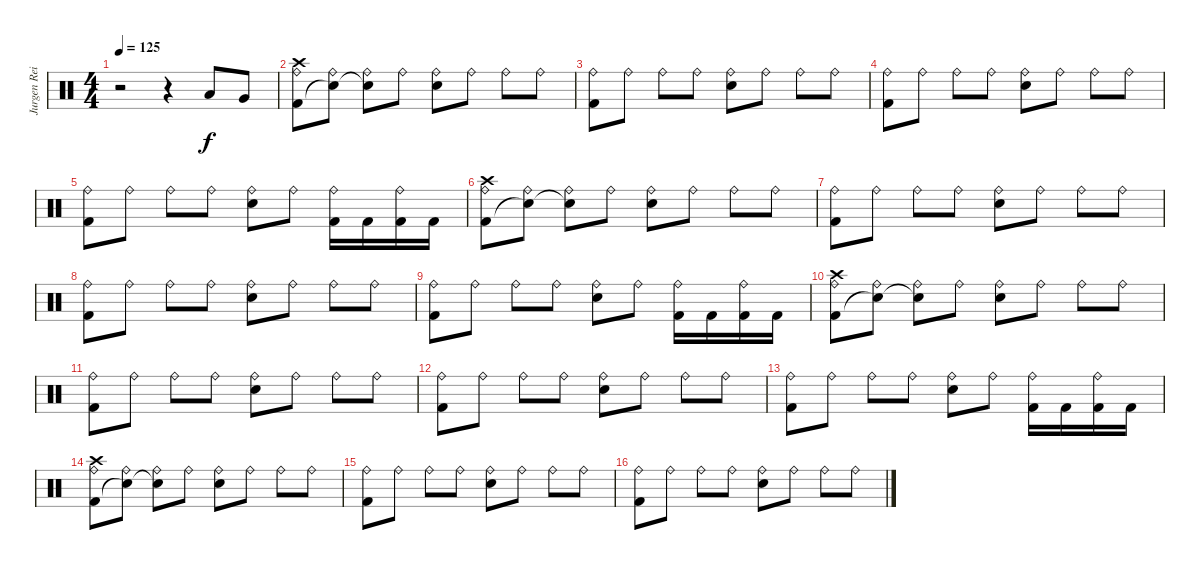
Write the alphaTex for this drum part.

\track ("Jurgen Reil" "Jurgen Rei") {instrument percussion}
\staff {score}
\articulation defaults
\ts (4 4)
\tempo 125
\clef neutral
\ks c
r.2{dy f} r.4 "Low Tom (hit)".8 "Very Low Tom (hit)".8 |
("Ride (bell)" "Kick (hit) 2" "Crash high (hit)").8 ("Ride (bell)" "Snare (hit)"{t}).8 ("Ride (bell)" "Snare (hit)"{t}).8 "Ride (bell)".8 ("Ride (bell)" "Snare (hit) 2").8 "Ride (bell)".8 "Ride (bell)".8 "Ride (bell)".8 |
("Ride (bell)" "Kick (hit) 2").8 "Ride (bell)".8 "Ride (bell)".8 "Ride (bell)".8 ("Ride (bell)" "Snare (hit) 2").8 "Ride (bell)".8 "Ride (bell)".8 "Ride (bell)".8 |
("Ride (bell)" "Kick (hit) 2").8 "Ride (bell)".8 "Ride (bell)".8 "Ride (bell)".8 ("Ride (bell)" "Snare (hit) 2").8 "Ride (bell)".8 "Ride (bell)".8 "Ride (bell)".8 |
("Ride (bell)" "Kick (hit) 2").8 "Ride (bell)".8 "Ride (bell)".8 "Ride (bell)".8 ("Ride (bell)" "Snare (hit) 2").8 "Ride (bell)".8 ("Ride (bell)" "Kick (hit) 2").16 "Kick (hit) 2".16 ("Ride (bell)" "Kick (hit) 2").16 "Kick (hit) 2".16 |
("Ride (bell)" "Kick (hit) 2" "Crash high (hit)").8 ("Ride (bell)" "Snare (hit)"{t}).8 ("Ride (bell)" "Snare (hit)"{t}).8 "Ride (bell)".8 ("Ride (bell)" "Snare (hit) 2").8 "Ride (bell)".8 "Ride (bell)".8 "Ride (bell)".8 |
("Ride (bell)" "Kick (hit) 2").8 "Ride (bell)".8 "Ride (bell)".8 "Ride (bell)".8 ("Ride (bell)" "Snare (hit) 2").8 "Ride (bell)".8 "Ride (bell)".8 "Ride (bell)".8 |
("Ride (bell)" "Kick (hit) 2").8 "Ride (bell)".8 "Ride (bell)".8 "Ride (bell)".8 ("Ride (bell)" "Snare (hit) 2").8 "Ride (bell)".8 "Ride (bell)".8 "Ride (bell)".8 |
("Ride (bell)" "Kick (hit) 2").8 "Ride (bell)".8 "Ride (bell)".8 "Ride (bell)".8 ("Ride (bell)" "Snare (hit) 2").8 "Ride (bell)".8 ("Ride (bell)" "Kick (hit) 2").16 "Kick (hit) 2".16 ("Ride (bell)" "Kick (hit) 2").16 "Kick (hit) 2".16 |
("Ride (bell)" "Kick (hit) 2" "Crash high (hit)").8 ("Ride (bell)" "Snare (hit)"{t}).8 ("Ride (bell)" "Snare (hit)"{t}).8 "Ride (bell)".8 ("Ride (bell)" "Snare (hit) 2").8 "Ride (bell)".8 "Ride (bell)".8 "Ride (bell)".8 |
("Ride (bell)" "Kick (hit) 2").8 "Ride (bell)".8 "Ride (bell)".8 "Ride (bell)".8 ("Ride (bell)" "Snare (hit) 2").8 "Ride (bell)".8 "Ride (bell)".8 "Ride (bell)".8 |
("Ride (bell)" "Kick (hit) 2").8 "Ride (bell)".8 "Ride (bell)".8 "Ride (bell)".8 ("Ride (bell)" "Snare (hit) 2").8 "Ride (bell)".8 "Ride (bell)".8 "Ride (bell)".8 |
("Ride (bell)" "Kick (hit) 2").8 "Ride (bell)".8 "Ride (bell)".8 "Ride (bell)".8 ("Ride (bell)" "Snare (hit) 2").8 "Ride (bell)".8 ("Ride (bell)" "Kick (hit) 2").16 "Kick (hit) 2".16 ("Ride (bell)" "Kick (hit) 2").16 "Kick (hit) 2".16 |
("Ride (bell)" "Kick (hit) 2" "Crash high (hit)").8 ("Ride (bell)" "Snare (hit)"{t}).8 ("Ride (bell)" "Snare (hit)"{t}).8 "Ride (bell)".8 ("Ride (bell)" "Snare (hit) 2").8 "Ride (bell)".8 "Ride (bell)".8 "Ride (bell)".8 |
("Ride (bell)" "Kick (hit) 2").8 "Ride (bell)".8 "Ride (bell)".8 "Ride (bell)".8 ("Ride (bell)" "Snare (hit) 2").8 "Ride (bell)".8 "Ride (bell)".8 "Ride (bell)".8 |
("Ride (bell)" "Kick (hit) 2").8 "Ride (bell)".8 "Ride (bell)".8 "Ride (bell)".8 ("Ride (bell)" "Snare (hit) 2").8 "Ride (bell)".8 "Ride (bell)".8 "Ride (bell)".8
